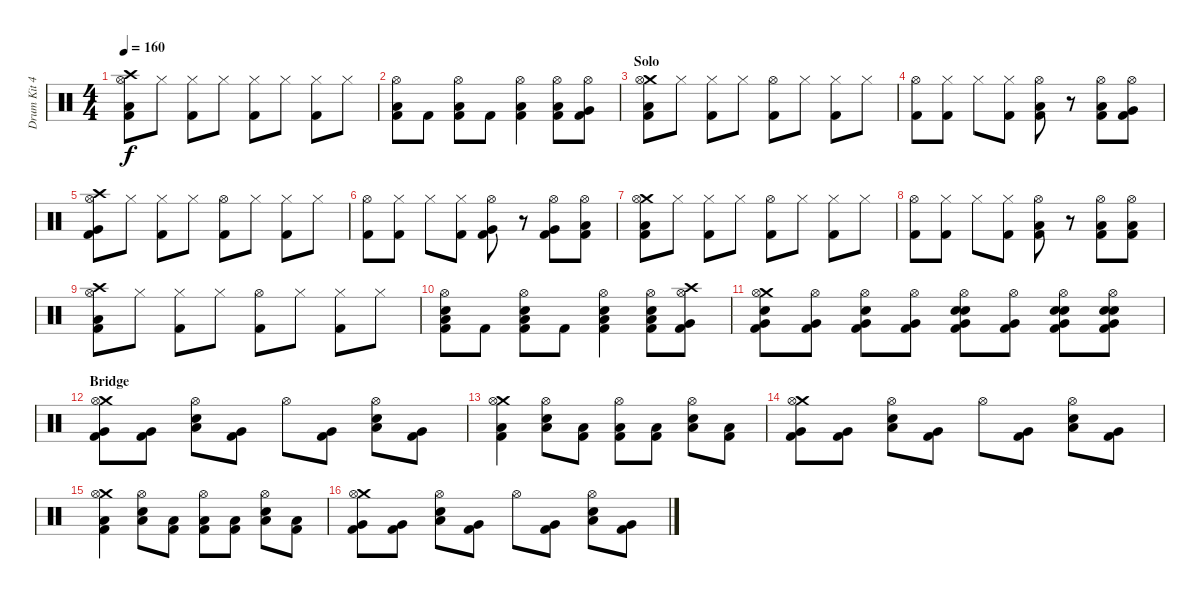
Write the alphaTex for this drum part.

\track ("Drum Kit 42" "Drum Kit 4") {instrument percussion}
\staff {score}
\articulation defaults
\ts (4 4)
\tempo 160
\clef neutral
\ks c
("Crash high (hit)" "Hi-Hat (open)" "Low Floor Tom (hit)" "Kick (hit) 2").8{dy f} "Hi-Hat (closed)".8 ("Hi-Hat (closed)" "Kick (hit) 2").8 "Hi-Hat (closed)".8 ("Hi-Hat (closed)" "Kick (hit) 2").8 "Hi-Hat (closed)".8 ("Hi-Hat (closed)" "Kick (hit) 2").8 "Hi-Hat (closed)".8 |
("Hi-Hat (open)" "Low Floor Tom (hit)" "Kick (hit) 2").8 "Kick (hit) 2".8 ("Hi-Hat (open)" "Low Floor Tom (hit)" "Kick (hit) 2").8 "Kick (hit) 2".8 ("Hi-Hat (open)" "Low Floor Tom (hit)" "Kick (hit) 2").4 ("Hi-Hat (open)" "Low Floor Tom (hit)" "Kick (hit) 2").8 ("Hi-Hat (open)" "Very Low Tom (hit)" "Kick (hit) 2").8 |
\section ("" "Solo")
("Crash medium (hit)" "Hi-Hat (open)" "Low Tom (hit)" "Kick (hit) 2").8 "Hi-Hat (closed)".8 ("Hi-Hat (closed)" "Kick (hit) 2").8 "Hi-Hat (closed)".8 ("Hi-Hat (open)" "Kick (hit) 2").8 "Hi-Hat (closed)".8 ("Hi-Hat (closed)" "Kick (hit) 2").8 "Hi-Hat (closed)".8 |
("Hi-Hat (open)" "Kick (hit) 2").8 ("Hi-Hat (closed)" "Kick (hit) 2").8 "Hi-Hat (closed)".8 ("Hi-Hat (closed)" "Kick (hit) 2").8 ("Hi-Hat (open)" "Low Tom (hit)" "Kick (hit) 2").8 r.8 ("Hi-Hat (open)" "Low Tom (hit)" "Kick (hit) 2").8 ("Hi-Hat (open)" "Very Low Tom (hit)" "Kick (hit) 2").8 |
("Crash high (hit)" "Hi-Hat (open)" "Very Low Tom (hit)" "Kick (hit) 2").8 "Hi-Hat (closed)".8 ("Hi-Hat (closed)" "Kick (hit) 2").8 "Hi-Hat (closed)".8 ("Hi-Hat (open)" "Kick (hit) 2").8 "Hi-Hat (closed)".8 ("Hi-Hat (closed)" "Kick (hit) 2").8 "Hi-Hat (closed)".8 |
("Hi-Hat (open)" "Kick (hit) 2").8 ("Hi-Hat (closed)" "Kick (hit) 2").8 "Hi-Hat (closed)".8 ("Hi-Hat (closed)" "Kick (hit) 2").8 ("Hi-Hat (open)" "Very Low Tom (hit)" "Kick (hit) 2").8 r.8 ("Hi-Hat (open)" "Very Low Tom (hit)" "Kick (hit) 2").8 ("Hi-Hat (open)" "Low Floor Tom (hit)" "Kick (hit) 2").8 |
("Crash medium (hit)" "Hi-Hat (open)" "Low Floor Tom (hit)" "Kick (hit) 2").8 "Hi-Hat (closed)".8 ("Hi-Hat (closed)" "Kick (hit) 2").8 "Hi-Hat (closed)".8 ("Hi-Hat (open)" "Kick (hit) 2").8 "Hi-Hat (closed)".8 ("Hi-Hat (closed)" "Kick (hit) 2").8 "Hi-Hat (closed)".8 |
("Hi-Hat (open)" "Kick (hit) 2").8 ("Hi-Hat (closed)" "Kick (hit) 2").8 "Hi-Hat (closed)".8 ("Hi-Hat (closed)" "Kick (hit) 2").8 ("Hi-Hat (open)" "Low Floor Tom (hit)" "Kick (hit) 2").8 r.8 ("Hi-Hat (open)" "Low Floor Tom (hit)" "Kick (hit) 2").8 ("Hi-Hat (open)" "Low Floor Tom (hit)" "Kick (hit) 2").8 |
("Crash high (hit)" "Hi-Hat (open)" "Low Floor Tom (hit)" "Kick (hit) 2").8 "Hi-Hat (closed)".8 ("Hi-Hat (closed)" "Kick (hit) 2").8 "Hi-Hat (closed)".8 ("Hi-Hat (open)" "Kick (hit) 2").8 "Hi-Hat (closed)".8 ("Hi-Hat (closed)" "Kick (hit) 2").8 "Hi-Hat (closed)".8 |
("Snare (hit) 2" "Hi-Hat (open)" "Low Floor Tom (hit)" "Kick (hit) 2").8 "Kick (hit) 2".8 ("Snare (hit) 2" "Hi-Hat (open)" "Low Floor Tom (hit)" "Kick (hit) 2").8 "Kick (hit) 2".8 ("Snare (hit) 2" "Hi-Hat (open)" "Low Floor Tom (hit)" "Kick (hit) 2").4 ("Snare (hit) 2" "Hi-Hat (open)" "Low Floor Tom (hit)" "Kick (hit) 2").8 ("Crash high (hit)" "Hi-Hat (open)" "Very Low Tom (hit)" "Kick (hit) 2").8 |
("Crash medium (hit)" "Snare (hit) 2" "Hi-Hat (open)" "Very Low Tom (hit)" "Kick (hit) 2").8 ("Very Low Tom (hit)" "Hi-Hat (open)" "Kick (hit) 2").8 ("Snare (hit) 2" "Hi-Hat (open)" "Very Low Tom (hit)" "Kick (hit) 2").8 ("Very Low Tom (hit)" "Hi-Hat (open)" "Kick (hit) 2").8 ("Very Low Tom (hit)" "Snare (hit) 2" "Hi-Hat (open)" "Snare (hit) 2" "Kick (hit) 2").8 ("Very Low Tom (hit)" "Hi-Hat (open)" "Kick (hit) 2").8 ("Very Low Tom (hit)" "Snare (hit) 2" "Hi-Hat (open)" "Snare (hit) 2" "Kick (hit) 2").8 ("Very Low Tom (hit)" "Snare (hit) 2" "Hi-Hat (open)" "Snare (hit) 2" "Kick (hit) 2").8 |
\section ("" "Bridge")
("Crash medium (hit)" "Hi-Hat (open)" "Very Low Tom (hit)" "Kick (hit) 2").8 ("Very Low Tom (hit)" "Kick (hit) 2").8 ("Hi-Hat (open)" "Low Tom (hit)" "Snare (hit) 2").8 ("Very Low Tom (hit)" "Kick (hit) 2").8 "Hi-Hat (open)".8 ("Very Low Tom (hit)" "Kick (hit) 2").8 ("Hi-Hat (open)" "Low Tom (hit)" "Snare (hit) 2").8 ("Very Low Tom (hit)" "Kick (hit) 2").8 |
("Crash medium (hit)" "Hi-Hat (open)" "Low Floor Tom (hit)" "Kick (hit) 2").4 ("Hi-Hat (open)" "Low Floor Tom (hit)" "Snare (hit) 2").8 ("Low Floor Tom (hit)" "Kick (hit) 2").8 ("Hi-Hat (open)" "Low Floor Tom (hit)" "Kick (hit) 2").8 ("Low Floor Tom (hit)" "Kick (hit) 2").8 ("Hi-Hat (open)" "Low Tom (hit)" "Snare (hit) 2").8 ("Low Tom (hit)" "Kick (hit) 2").8 |
("Crash medium (hit)" "Hi-Hat (open)" "Very Low Tom (hit)" "Kick (hit) 2").8 ("Very Low Tom (hit)" "Kick (hit) 2").8 ("Hi-Hat (open)" "Low Tom (hit)" "Snare (hit) 2").8 ("Very Low Tom (hit)" "Kick (hit) 2").8 "Hi-Hat (open)".8 ("Very Low Tom (hit)" "Kick (hit) 2").8 ("Hi-Hat (open)" "Low Tom (hit)" "Snare (hit) 2").8 ("Very Low Tom (hit)" "Kick (hit) 2").8 |
("Crash medium (hit)" "Hi-Hat (open)" "Low Floor Tom (hit)" "Kick (hit) 2").4 ("Hi-Hat (open)" "Low Floor Tom (hit)" "Snare (hit) 2").8 ("Low Floor Tom (hit)" "Kick (hit) 2").8 ("Hi-Hat (open)" "Low Floor Tom (hit)" "Kick (hit) 2").8 ("Low Floor Tom (hit)" "Kick (hit) 2").8 ("Hi-Hat (open)" "Low Tom (hit)" "Snare (hit) 2").8 ("Low Tom (hit)" "Kick (hit) 2").8 |
("Crash medium (hit)" "Hi-Hat (open)" "Very Low Tom (hit)" "Kick (hit) 2").8 ("Very Low Tom (hit)" "Kick (hit) 2").8 ("Hi-Hat (open)" "Low Tom (hit)" "Snare (hit) 2").8 ("Very Low Tom (hit)" "Kick (hit) 2").8 "Hi-Hat (open)".8 ("Very Low Tom (hit)" "Kick (hit) 2").8 ("Hi-Hat (open)" "Low Tom (hit)" "Snare (hit) 2").8 ("Very Low Tom (hit)" "Kick (hit) 2").8
